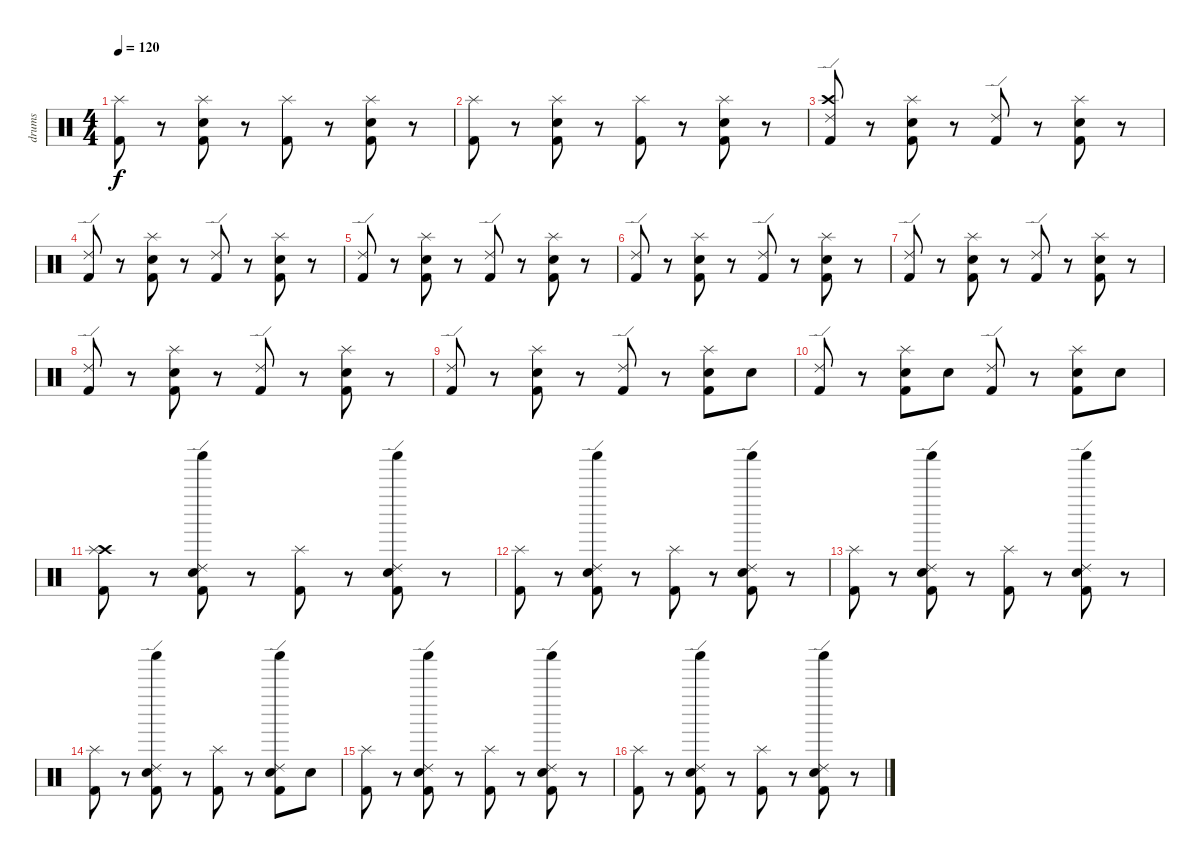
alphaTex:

\track ("drums" "drums") {instrument percussion}
\staff {score}
\articulation defaults
\ts (4 4)
\tempo 120
\clef neutral
\ks c
("Splash (hit)" "Kick (hit) 2").8{dy f} r.8 ("Splash (hit)" "Snare (hit) 2" "Kick (hit) 2").8 r.8 ("Splash (hit)" "Kick (hit) 2").8 r.8 ("Splash (hit)" "Snare (hit) 2" "Kick (hit) 2").8 r.8 |
("Splash (hit)" "Kick (hit) 2").8 r.8 ("Splash (hit)" "Snare (hit) 2" "Kick (hit) 2").8 r.8 ("Splash (hit)" "Kick (hit) 2").8 r.8 ("Splash (hit)" "Snare (hit) 2" "Kick (hit) 2").8 r.8 |
("Crash high (hit)" "Ride (edge) 2" "Kick (hit) 2").8 r.8 ("Splash (hit)" "Snare (hit) 2" "Kick (hit) 2").8 r.8 ("Ride (edge) 2" "Kick (hit) 2").8 r.8 ("Splash (hit)" "Snare (hit) 2" "Kick (hit) 2").8 r.8 |
("Ride (edge) 2" "Kick (hit) 2").8 r.8 ("Splash (hit)" "Snare (hit) 2" "Kick (hit) 2").8 r.8 ("Ride (edge) 2" "Kick (hit) 2").8 r.8 ("Splash (hit)" "Snare (hit) 2" "Kick (hit) 2").8 r.8 |
("Ride (edge) 2" "Kick (hit) 2").8 r.8 ("Splash (hit)" "Snare (hit) 2" "Kick (hit) 2").8 r.8 ("Ride (edge) 2" "Kick (hit) 2").8 r.8 ("Splash (hit)" "Snare (hit) 2" "Kick (hit) 2").8 r.8 |
("Ride (edge) 2" "Kick (hit) 2").8 r.8 ("Splash (hit)" "Snare (hit) 2" "Kick (hit) 2").8 r.8 ("Ride (edge) 2" "Kick (hit) 2").8 r.8 ("Splash (hit)" "Snare (hit) 2" "Kick (hit) 2").8 r.8 |
("Ride (edge) 2" "Kick (hit) 2").8 r.8 ("Splash (hit)" "Snare (hit) 2" "Kick (hit) 2").8 r.8 ("Ride (edge) 2" "Kick (hit) 2").8 r.8 ("Splash (hit)" "Snare (hit) 2" "Kick (hit) 2").8 r.8 |
("Ride (edge) 2" "Kick (hit) 2").8 r.8 ("Splash (hit)" "Snare (hit) 2" "Kick (hit) 2").8 r.8 ("Ride (edge) 2" "Kick (hit) 2").8 r.8 ("Splash (hit)" "Snare (hit) 2" "Kick (hit) 2").8 r.8 |
("Ride (edge) 2" "Kick (hit) 2").8 r.8 ("Splash (hit)" "Snare (hit) 2" "Kick (hit) 2").8 r.8 ("Ride (edge) 2" "Kick (hit) 2").8 r.8 ("Splash (hit)" "Snare (hit) 2" "Kick (hit) 2").8 "Snare (hit) 2".8 |
("Ride (edge) 2" "Kick (hit) 2").8 r.8 ("Splash (hit)" "Snare (hit) 2" "Kick (hit) 2").8 "Snare (hit) 2".8 ("Ride (edge) 2" "Kick (hit) 2").8 r.8 ("Splash (hit)" "Snare (hit) 2" "Kick (hit) 2").8 "Snare (hit) 2".8 |
("Crash high (hit)" "Splash (hit)" "Kick (hit) 2").8 r.8 ("Shaker (hit)" "Ride (edge) 2" "Snare (hit) 2" "Kick (hit) 2").8 r.8 ("Splash (hit)" "Kick (hit) 2").8 r.8 ("Shaker (hit)" "Ride (edge) 2" "Snare (hit) 2" "Kick (hit) 2").8 r.8 |
("Splash (hit)" "Kick (hit) 2").8 r.8 ("Shaker (hit)" "Ride (edge) 2" "Snare (hit) 2" "Kick (hit) 2").8 r.8 ("Splash (hit)" "Kick (hit) 2").8 r.8 ("Shaker (hit)" "Ride (edge) 2" "Snare (hit) 2" "Kick (hit) 2").8 r.8 |
("Splash (hit)" "Kick (hit) 2").8 r.8 ("Shaker (hit)" "Ride (edge) 2" "Snare (hit) 2" "Kick (hit) 2").8 r.8 ("Splash (hit)" "Kick (hit) 2").8 r.8 ("Shaker (hit)" "Ride (edge) 2" "Snare (hit) 2" "Kick (hit) 2").8 r.8 |
("Splash (hit)" "Kick (hit) 2").8 r.8 ("Shaker (hit)" "Ride (edge) 2" "Snare (hit) 2" "Kick (hit) 2").8 r.8 ("Splash (hit)" "Kick (hit) 2").8 r.8 ("Shaker (hit)" "Ride (edge) 2" "Snare (hit) 2" "Kick (hit) 2").8 "Snare (hit) 2".8 |
("Splash (hit)" "Kick (hit) 2").8 r.8 ("Shaker (hit)" "Ride (edge) 2" "Snare (hit) 2" "Kick (hit) 2").8 r.8 ("Splash (hit)" "Kick (hit) 2").8 r.8 ("Shaker (hit)" "Ride (edge) 2" "Snare (hit) 2" "Kick (hit) 2").8 r.8 |
("Splash (hit)" "Kick (hit) 2").8 r.8 ("Shaker (hit)" "Ride (edge) 2" "Snare (hit) 2" "Kick (hit) 2").8 r.8 ("Splash (hit)" "Kick (hit) 2").8 r.8 ("Shaker (hit)" "Ride (edge) 2" "Snare (hit) 2" "Kick (hit) 2").8 r.8
